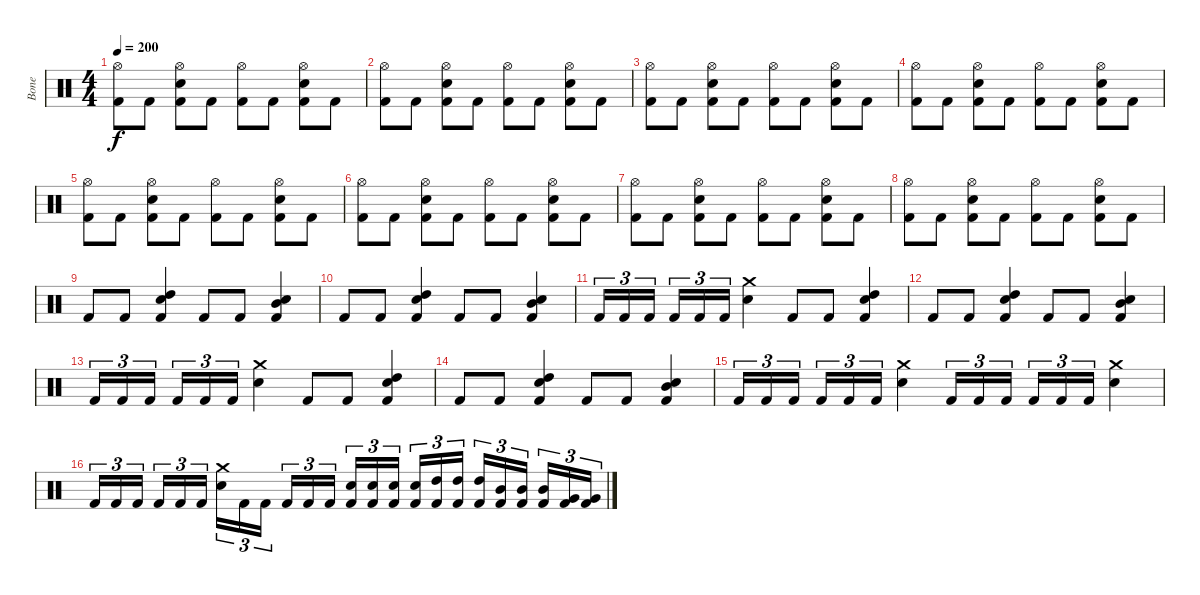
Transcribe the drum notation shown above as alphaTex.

\track ("Bone " "Bone ") {instrument percussion}
\staff {score}
\articulation defaults
\ts (4 4)
\tempo 200
\clef neutral
\ks c
("Hi-Hat (open)" "Kick (hit) 2").8{dy f} "Kick (hit) 2".8 ("Hi-Hat (open)" "Electric Snare (hit)" "Kick (hit) 2").8 "Kick (hit) 2".8 ("Hi-Hat (open)" "Kick (hit) 2").8 "Kick (hit) 2".8 ("Hi-Hat (open)" "Electric Snare (hit)" "Kick (hit) 2").8 "Kick (hit) 2".8 |
("Hi-Hat (open)" "Kick (hit) 2").8 "Kick (hit) 2".8 ("Hi-Hat (open)" "Electric Snare (hit)" "Kick (hit) 2").8 "Kick (hit) 2".8 ("Hi-Hat (open)" "Kick (hit) 2").8 "Kick (hit) 2".8 ("Hi-Hat (open)" "Electric Snare (hit)" "Kick (hit) 2").8 "Kick (hit) 2".8 |
("Hi-Hat (open)" "Kick (hit) 2").8 "Kick (hit) 2".8 ("Hi-Hat (open)" "Electric Snare (hit)" "Kick (hit) 2").8 "Kick (hit) 2".8 ("Hi-Hat (open)" "Kick (hit) 2").8 "Kick (hit) 2".8 ("Hi-Hat (open)" "Electric Snare (hit)" "Kick (hit) 2").8 "Kick (hit) 2".8 |
("Hi-Hat (open)" "Kick (hit) 2").8 "Kick (hit) 2".8 ("Hi-Hat (open)" "Electric Snare (hit)" "Kick (hit) 2").8 "Kick (hit) 2".8 ("Hi-Hat (open)" "Kick (hit) 2").8 "Kick (hit) 2".8 ("Hi-Hat (open)" "Electric Snare (hit)" "Kick (hit) 2").8 "Kick (hit) 2".8 |
("Hi-Hat (open)" "Kick (hit) 2").8 "Kick (hit) 2".8 ("Hi-Hat (open)" "Electric Snare (hit)" "Kick (hit) 2").8 "Kick (hit) 2".8 ("Hi-Hat (open)" "Kick (hit) 2").8 "Kick (hit) 2".8 ("Hi-Hat (open)" "Electric Snare (hit)" "Kick (hit) 2").8 "Kick (hit) 2".8 |
("Hi-Hat (open)" "Kick (hit) 2").8 "Kick (hit) 2".8 ("Hi-Hat (open)" "Electric Snare (hit)" "Kick (hit) 2").8 "Kick (hit) 2".8 ("Hi-Hat (open)" "Kick (hit) 2").8 "Kick (hit) 2".8 ("Hi-Hat (open)" "Electric Snare (hit)" "Kick (hit) 2").8 "Kick (hit) 2".8 |
("Hi-Hat (open)" "Kick (hit) 2").8 "Kick (hit) 2".8 ("Hi-Hat (open)" "Electric Snare (hit)" "Kick (hit) 2").8 "Kick (hit) 2".8 ("Hi-Hat (open)" "Kick (hit) 2").8 "Kick (hit) 2".8 ("Hi-Hat (open)" "Electric Snare (hit)" "Kick (hit) 2").8 "Kick (hit) 2".8 |
("Hi-Hat (open)" "Kick (hit) 2").8 "Kick (hit) 2".8 ("Hi-Hat (open)" "Electric Snare (hit)" "Kick (hit) 2").8 "Kick (hit) 2".8 ("Hi-Hat (open)" "Kick (hit) 2").8 "Kick (hit) 2".8 ("Hi-Hat (open)" "Electric Snare (hit)" "Kick (hit) 2").8 "Kick (hit) 2".8 |
"Kick (hit) 2".8 "Kick (hit) 2".8 ("High Tom (hit)" "Electric Snare (hit)" "Kick (hit) 2").4 "Kick (hit) 2".8 "Kick (hit) 2".8 ("Mid Tom (hit)" "Electric Snare (hit)" "Kick (hit) 2").4 |
"Kick (hit) 2".8 "Kick (hit) 2".8 ("High Tom (hit)" "Electric Snare (hit)" "Kick (hit) 2").4 "Kick (hit) 2".8 "Kick (hit) 2".8 ("Mid Tom (hit)" "Electric Snare (hit)" "Kick (hit) 2").4 |
"Kick (hit) 2".16{tu (3 2)} "Kick (hit) 2".16{tu (3 2)} "Kick (hit) 2".16{tu (3 2) beam splitsecondary} "Kick (hit) 2".16{tu (3 2)} "Kick (hit) 2".16{tu (3 2)} "Kick (hit) 2".16{tu (3 2)} ("Crash medium (hit)" "Electric Snare (hit)").4 "Kick (hit) 2".8 "Kick (hit) 2".8 ("High Tom (hit)" "Electric Snare (hit)" "Kick (hit) 2").4 |
"Kick (hit) 2".8 "Kick (hit) 2".8 ("High Tom (hit)" "Electric Snare (hit)" "Kick (hit) 2").4 "Kick (hit) 2".8 "Kick (hit) 2".8 ("Mid Tom (hit)" "Electric Snare (hit)" "Kick (hit) 2").4 |
"Kick (hit) 2".16{tu (3 2)} "Kick (hit) 2".16{tu (3 2)} "Kick (hit) 2".16{tu (3 2) beam splitsecondary} "Kick (hit) 2".16{tu (3 2)} "Kick (hit) 2".16{tu (3 2)} "Kick (hit) 2".16{tu (3 2)} ("Crash medium (hit)" "Electric Snare (hit)").4 "Kick (hit) 2".8 "Kick (hit) 2".8 ("High Tom (hit)" "Electric Snare (hit)" "Kick (hit) 2").4 |
"Kick (hit) 2".8 "Kick (hit) 2".8 ("High Tom (hit)" "Electric Snare (hit)" "Kick (hit) 2").4 "Kick (hit) 2".8 "Kick (hit) 2".8 ("Mid Tom (hit)" "Electric Snare (hit)" "Kick (hit) 2").4 |
"Kick (hit) 2".16{tu (3 2)} "Kick (hit) 2".16{tu (3 2)} "Kick (hit) 2".16{tu (3 2) beam splitsecondary} "Kick (hit) 2".16{tu (3 2)} "Kick (hit) 2".16{tu (3 2)} "Kick (hit) 2".16{tu (3 2)} ("Crash medium (hit)" "Electric Snare (hit)").4 "Kick (hit) 2".16{tu (3 2)} "Kick (hit) 2".16{tu (3 2)} "Kick (hit) 2".16{tu (3 2) beam splitsecondary} "Kick (hit) 2".16{tu (3 2)} "Kick (hit) 2".16{tu (3 2)} "Kick (hit) 2".16{tu (3 2)} ("Crash medium (hit)" "Electric Snare (hit)").4 |
"Kick (hit) 2".16{tu (3 2)} "Kick (hit) 2".16{tu (3 2)} "Kick (hit) 2".16{tu (3 2) beam splitsecondary} "Kick (hit) 2".16{tu (3 2)} "Kick (hit) 2".16{tu (3 2)} "Kick (hit) 2".16{tu (3 2)} ("Crash medium (hit)" "Electric Snare (hit)").16{tu (3 2)} "Kick (hit) 2".16{tu (3 2)} "Kick (hit) 2".16{tu (3 2) beam splitsecondary} "Kick (hit) 2".16{tu (3 2)} "Kick (hit) 2".16{tu (3 2)} "Kick (hit) 2".16{tu (3 2)} ("Electric Snare (hit)" "Kick (hit) 2").16{tu (3 2)} ("Electric Snare (hit)" "Kick (hit) 2").16{tu (3 2)} ("Electric Snare (hit)" "Kick (hit) 2").16{tu (3 2) beam splitsecondary} ("Electric Snare (hit)" "Kick (hit) 2").16{tu (3 2)} ("High Tom (hit)" "Kick (hit) 2").16{tu (3 2)} ("High Tom (hit)" "Kick (hit) 2").16{tu (3 2)} ("High Tom (hit)" "Kick (hit) 2").16{tu (3 2)} ("Mid Tom (hit)" "Kick (hit) 2").16{tu (3 2)} ("Mid Tom (hit)" "Kick (hit) 2").16{tu (3 2) beam splitsecondary} ("Mid Tom (hit)" "Kick (hit) 2").16{tu (3 2)} ("Very Low Tom (hit)" "Kick (hit) 2").16{tu (3 2)} ("Very Low Tom (hit)" "Kick (hit) 2").16{tu (3 2)}
